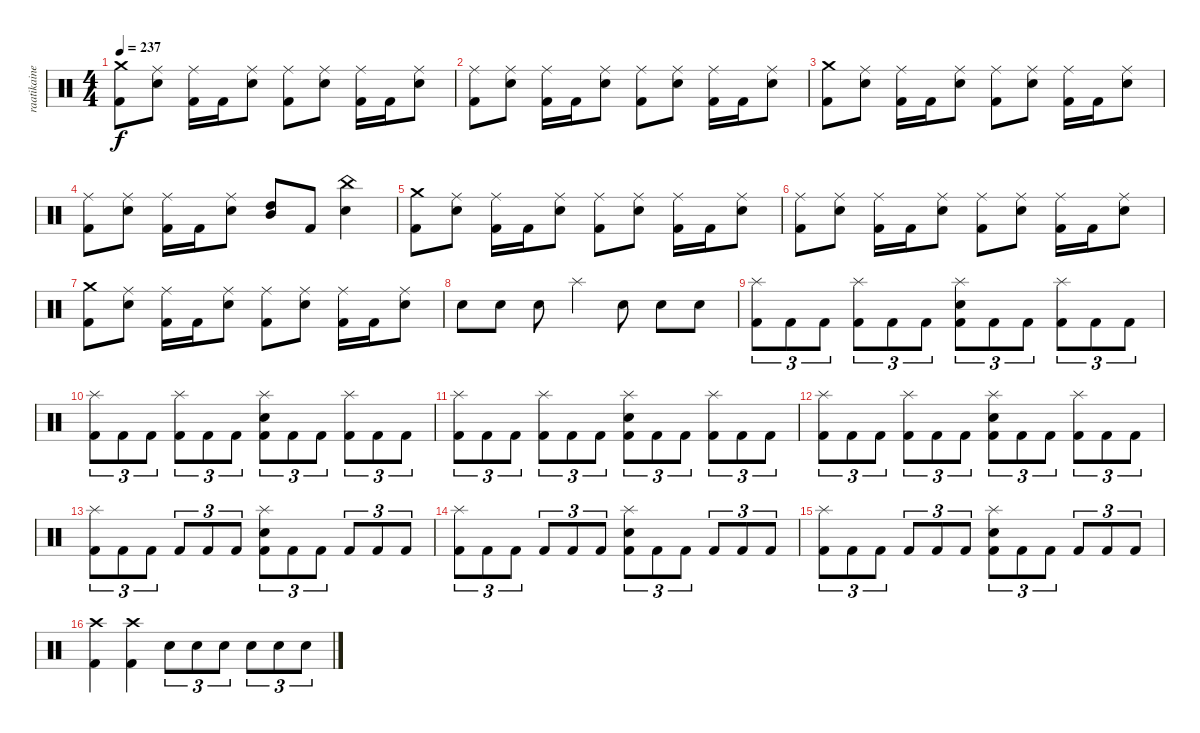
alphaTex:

\track ("raatikainen" "raatikaine") {instrument percussion}
\staff {score}
\articulation defaults
\ts (4 4)
\tempo 237
\clef neutral
\ks c
("Crash medium (hit)" "Kick (hit) 2").8{dy f} ("Ride (middle)" "Snare (hit) 2").8 ("Ride (middle)" "Kick (hit) 2").16 "Kick (hit) 2".16 ("Ride (middle)" "Snare (hit) 2").8 ("Ride (middle)" "Kick (hit) 2").8 ("Ride (middle)" "Snare (hit) 2").8 ("Ride (middle)" "Kick (hit) 2").16 "Kick (hit) 2".16 ("Ride (middle)" "Snare (hit) 2").8 |
("Ride (middle)" "Kick (hit) 2").8 ("Ride (middle)" "Snare (hit) 2").8 ("Ride (middle)" "Kick (hit) 2").16 "Kick (hit) 2".16 ("Ride (middle)" "Snare (hit) 2").8 ("Ride (middle)" "Kick (hit) 2").8 ("Ride (middle)" "Snare (hit) 2").8 ("Ride (middle)" "Kick (hit) 2").16 "Kick (hit) 2".16 ("Ride (middle)" "Snare (hit) 2").8 |
("Crash medium (hit)" "Kick (hit) 2").8 ("Ride (middle)" "Snare (hit) 2").8 ("Ride (middle)" "Kick (hit) 2").16 "Kick (hit) 2".16 ("Ride (middle)" "Snare (hit) 2").8 ("Ride (middle)" "Kick (hit) 2").8 ("Ride (middle)" "Snare (hit) 2").8 ("Ride (middle)" "Kick (hit) 2").16 "Kick (hit) 2".16 ("Ride (middle)" "Snare (hit) 2").8 |
("Ride (middle)" "Kick (hit) 2").8 ("Ride (middle)" "Snare (hit) 2").8 ("Ride (middle)" "Kick (hit) 2").16 "Kick (hit) 2".16 ("Ride (middle)" "Snare (hit) 2").8 ("Mid Tom (hit)" "High Tom (hit)").8 "Kick (hit) 2".8 ("China (hit)" "Snare (hit) 2").4 |
("Crash medium (hit)" "Kick (hit) 2").8 ("Ride (middle)" "Snare (hit) 2").8 ("Ride (middle)" "Kick (hit) 2").16 "Kick (hit) 2".16 ("Ride (middle)" "Snare (hit) 2").8 ("Ride (middle)" "Kick (hit) 2").8 ("Ride (middle)" "Snare (hit) 2").8 ("Ride (middle)" "Kick (hit) 2").16 "Kick (hit) 2".16 ("Ride (middle)" "Snare (hit) 2").8 |
("Ride (middle)" "Kick (hit) 2").8 ("Ride (middle)" "Snare (hit) 2").8 ("Ride (middle)" "Kick (hit) 2").16 "Kick (hit) 2".16 ("Ride (middle)" "Snare (hit) 2").8 ("Ride (middle)" "Kick (hit) 2").8 ("Ride (middle)" "Snare (hit) 2").8 ("Ride (middle)" "Kick (hit) 2").16 "Kick (hit) 2".16 ("Ride (middle)" "Snare (hit) 2").8 |
("Crash medium (hit)" "Kick (hit) 2").8 ("Ride (middle)" "Snare (hit) 2").8 ("Ride (middle)" "Kick (hit) 2").16 "Kick (hit) 2".16 ("Ride (middle)" "Snare (hit) 2").8 ("Ride (middle)" "Kick (hit) 2").8 ("Ride (middle)" "Snare (hit) 2").8 ("Ride (middle)" "Kick (hit) 2").16 "Kick (hit) 2".16 ("Ride (middle)" "Snare (hit) 2").8 |
"Electric Snare (hit)".8 "Electric Snare (hit)".8 "Electric Snare (hit)".8 "Splash (hit)".4 "Electric Snare (hit)".8 "Electric Snare (hit)".8 "Electric Snare (hit)".8 |
("Splash (hit)" "Kick (hit) 2").8{tu (3 2)} "Kick (hit) 2".8{tu (3 2)} "Kick (hit) 2".8{tu (3 2)} ("Splash (hit)" "Kick (hit) 2").8{tu (3 2)} "Kick (hit) 2".8{tu (3 2)} "Kick (hit) 2".8{tu (3 2)} ("Splash (hit)" "Electric Snare (hit)" "Kick (hit) 2").8{tu (3 2)} "Kick (hit) 2".8{tu (3 2)} "Kick (hit) 2".8{tu (3 2)} ("Splash (hit)" "Kick (hit) 2").8{tu (3 2)} "Kick (hit) 2".8{tu (3 2)} "Kick (hit) 2".8{tu (3 2)} |
("Splash (hit)" "Kick (hit) 2").8{tu (3 2)} "Kick (hit) 2".8{tu (3 2)} "Kick (hit) 2".8{tu (3 2)} ("Splash (hit)" "Kick (hit) 2").8{tu (3 2)} "Kick (hit) 2".8{tu (3 2)} "Kick (hit) 2".8{tu (3 2)} ("Splash (hit)" "Electric Snare (hit)" "Kick (hit) 2").8{tu (3 2)} "Kick (hit) 2".8{tu (3 2)} "Kick (hit) 2".8{tu (3 2)} ("Splash (hit)" "Kick (hit) 2").8{tu (3 2)} "Kick (hit) 2".8{tu (3 2)} "Kick (hit) 2".8{tu (3 2)} |
("Splash (hit)" "Kick (hit) 2").8{tu (3 2)} "Kick (hit) 2".8{tu (3 2)} "Kick (hit) 2".8{tu (3 2)} ("Splash (hit)" "Kick (hit) 2").8{tu (3 2)} "Kick (hit) 2".8{tu (3 2)} "Kick (hit) 2".8{tu (3 2)} ("Splash (hit)" "Electric Snare (hit)" "Kick (hit) 2").8{tu (3 2)} "Kick (hit) 2".8{tu (3 2)} "Kick (hit) 2".8{tu (3 2)} ("Splash (hit)" "Kick (hit) 2").8{tu (3 2)} "Kick (hit) 2".8{tu (3 2)} "Kick (hit) 2".8{tu (3 2)} |
("Splash (hit)" "Kick (hit) 2").8{tu (3 2)} "Kick (hit) 2".8{tu (3 2)} "Kick (hit) 2".8{tu (3 2)} ("Splash (hit)" "Kick (hit) 2").8{tu (3 2)} "Kick (hit) 2".8{tu (3 2)} "Kick (hit) 2".8{tu (3 2)} ("Splash (hit)" "Electric Snare (hit)" "Kick (hit) 2").8{tu (3 2)} "Kick (hit) 2".8{tu (3 2)} "Kick (hit) 2".8{tu (3 2)} ("Splash (hit)" "Kick (hit) 2").8{tu (3 2)} "Kick (hit) 2".8{tu (3 2)} "Kick (hit) 2".8{tu (3 2)} |
("Splash (hit)" "Kick (hit) 2").8{tu (3 2)} "Kick (hit) 2".8{tu (3 2)} "Kick (hit) 2".8{tu (3 2)} "Kick (hit) 2".8{tu (3 2)} "Kick (hit) 2".8{tu (3 2)} "Kick (hit) 2".8{tu (3 2)} ("Splash (hit)" "Electric Snare (hit)" "Kick (hit) 2").8{tu (3 2)} "Kick (hit) 2".8{tu (3 2)} "Kick (hit) 2".8{tu (3 2)} "Kick (hit) 2".8{tu (3 2)} "Kick (hit) 2".8{tu (3 2)} "Kick (hit) 2".8{tu (3 2)} |
("Splash (hit)" "Kick (hit) 2").8{tu (3 2)} "Kick (hit) 2".8{tu (3 2)} "Kick (hit) 2".8{tu (3 2)} "Kick (hit) 2".8{tu (3 2)} "Kick (hit) 2".8{tu (3 2)} "Kick (hit) 2".8{tu (3 2)} ("Splash (hit)" "Electric Snare (hit)" "Kick (hit) 2").8{tu (3 2)} "Kick (hit) 2".8{tu (3 2)} "Kick (hit) 2".8{tu (3 2)} "Kick (hit) 2".8{tu (3 2)} "Kick (hit) 2".8{tu (3 2)} "Kick (hit) 2".8{tu (3 2)} |
("Splash (hit)" "Kick (hit) 2").8{tu (3 2)} "Kick (hit) 2".8{tu (3 2)} "Kick (hit) 2".8{tu (3 2)} "Kick (hit) 2".8{tu (3 2)} "Kick (hit) 2".8{tu (3 2)} "Kick (hit) 2".8{tu (3 2)} ("Splash (hit)" "Electric Snare (hit)" "Kick (hit) 2").8{tu (3 2)} "Kick (hit) 2".8{tu (3 2)} "Kick (hit) 2".8{tu (3 2)} "Kick (hit) 2".8{tu (3 2)} "Kick (hit) 2".8{tu (3 2)} "Kick (hit) 2".8{tu (3 2)} |
("Crash high (hit)" "Kick (hit) 2").4 ("Crash high (hit)" "Kick (hit) 2").4 "Snare (hit) 2".8{tu (3 2)} "Snare (hit) 2".8{tu (3 2)} "Snare (hit) 2".8{tu (3 2)} "Snare (hit) 2".8{tu (3 2)} "Snare (hit) 2".8{tu (3 2)} "Snare (hit) 2".8{tu (3 2)}
